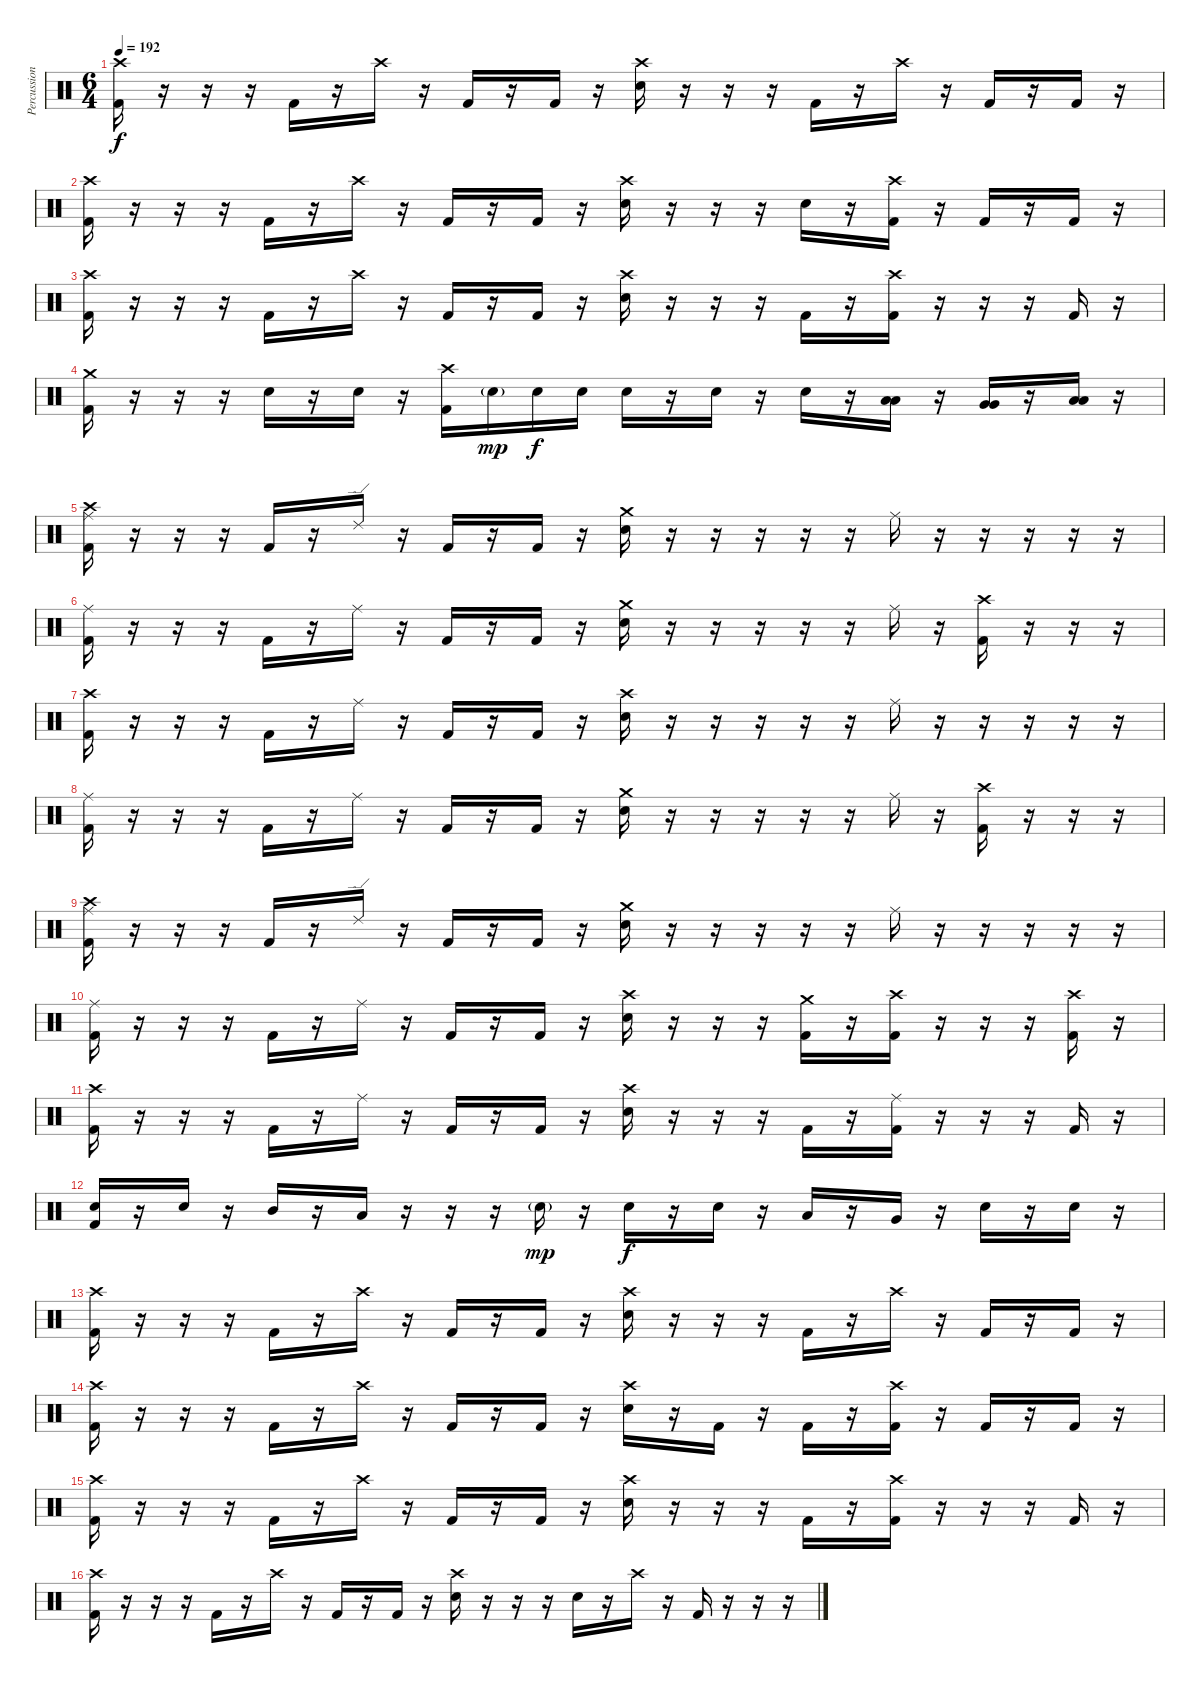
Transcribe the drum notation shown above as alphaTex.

\track ("Percussion" "Percussion") {instrument percussion}
\staff {score}
\articulation defaults
\ts (6 4)
\tempo 192
\clef neutral
\ks c
("Crash high (hit)" "Kick (hit) 2").16{dy f} r.16 r.16 r.16 "Kick (hit) 2".16 r.16 "Crash high (hit)".16 r.16 "Kick (hit) 2".16 r.16 "Kick (hit) 2".16 r.16 ("Crash high (hit)" "Snare (hit) 2").16 r.16 r.16 r.16 "Kick (hit) 2".16 r.16 "Crash high (hit)".16 r.16 "Kick (hit) 2".16 r.16 "Kick (hit) 2".16 r.16 |
("Crash high (hit)" "Kick (hit) 2").16 r.16 r.16 r.16 "Kick (hit) 2".16 r.16 "Crash high (hit)".16 r.16 "Kick (hit) 2".16 r.16 "Kick (hit) 2".16 r.16 ("Crash high (hit)" "Snare (hit) 2").16 r.16 r.16 r.16 "Snare (hit) 2".16 r.16 ("Crash high (hit)" "Kick (hit) 2").16 r.16 "Kick (hit) 2".16 r.16 "Kick (hit) 2".16 r.16 |
("Crash high (hit)" "Kick (hit) 2").16 r.16 r.16 r.16 "Kick (hit) 2".16 r.16 "Crash high (hit)".16 r.16 "Kick (hit) 2".16 r.16 "Kick (hit) 2".16 r.16 ("Crash high (hit)" "Snare (hit) 2").16 r.16 r.16 r.16 "Kick (hit) 2".16 r.16 ("Crash high (hit)" "Kick (hit) 2").16 r.16 r.16 r.16 "Kick (hit) 2".16 r.16 |
("Crash medium (hit)" "Kick (hit) 2").16 r.16 r.16 r.16 "Snare (hit) 2".16 r.16 "Snare (hit) 2".16 r.16 ("Crash high (hit)" "Kick (hit) 2").16 "Snare (hit) 2"{g}.16{dy mp} "Snare (hit) 2".16{dy f} "Snare (hit) 2".16 "Snare (hit) 2".16 r.16 "Snare (hit) 2".16 r.16 "Snare (hit) 2".16 r.16 ("Low Tom (hit)" "Low Tom (hit)").16 r.16 ("Very Low Tom (hit)" "Very Low Tom (hit)").16 r.16 ("Low Floor Tom (hit)" "Low Floor Tom (hit)").16 r.16 |
("Crash high (hit)" "Ride (middle)" "Kick (hit) 2").16 r.16 r.16 r.16 "Kick (hit) 2".16 r.16 "Ride (edge) 2".16 r.16 "Kick (hit) 2".16 r.16 "Kick (hit) 2".16 r.16 ("Crash medium (hit)" "Snare (hit) 2").16 r.16 r.16 r.16 r.16 r.16 "Ride (middle)".16 r.16 r.16 r.16 r.16 r.16 |
("Ride (middle)" "Kick (hit) 2").16 r.16 r.16 r.16 "Kick (hit) 2".16 r.16 "Ride (middle)".16 r.16 "Kick (hit) 2".16 r.16 "Kick (hit) 2".16 r.16 ("Crash medium (hit)" "Snare (hit) 2").16 r.16 r.16 r.16 r.16 r.16 "Ride (middle)".16 r.16 ("Crash high (hit)" "Kick (hit) 2").16 r.16 r.16 r.16 |
("Crash high (hit)" "Kick (hit) 2").16 r.16 r.16 r.16 "Kick (hit) 2".16 r.16 "Ride (middle)".16 r.16 "Kick (hit) 2".16 r.16 "Kick (hit) 2".16 r.16 ("Crash high (hit)" "Snare (hit) 2").16 r.16 r.16 r.16 r.16 r.16 "Ride (middle)".16 r.16 r.16 r.16 r.16 r.16 |
("Ride (middle)" "Kick (hit) 2").16 r.16 r.16 r.16 "Kick (hit) 2".16 r.16 "Ride (middle)".16 r.16 "Kick (hit) 2".16 r.16 "Kick (hit) 2".16 r.16 ("Crash medium (hit)" "Snare (hit) 2").16 r.16 r.16 r.16 r.16 r.16 "Ride (middle)".16 r.16 ("Crash high (hit)" "Kick (hit) 2").16 r.16 r.16 r.16 |
("Crash high (hit)" "Ride (middle)" "Kick (hit) 2").16 r.16 r.16 r.16 "Kick (hit) 2".16 r.16 "Ride (edge) 2".16 r.16 "Kick (hit) 2".16 r.16 "Kick (hit) 2".16 r.16 ("Crash medium (hit)" "Snare (hit) 2").16 r.16 r.16 r.16 r.16 r.16 "Ride (middle)".16 r.16 r.16 r.16 r.16 r.16 |
("Ride (middle)" "Kick (hit) 2").16 r.16 r.16 r.16 "Kick (hit) 2".16 r.16 "Ride (middle)".16 r.16 "Kick (hit) 2".16 r.16 "Kick (hit) 2".16 r.16 ("Crash high (hit)" "Snare (hit) 2").16 r.16 r.16 r.16 ("Crash medium (hit)" "Kick (hit) 2").16 r.16 ("Crash high (hit)" "Kick (hit) 2").16 r.16 r.16 r.16 ("Crash high (hit)" "Kick (hit) 2").16 r.16 |
("Crash high (hit)" "Kick (hit) 2").16 r.16 r.16 r.16 "Kick (hit) 2".16 r.16 "Ride (middle)".16 r.16 "Kick (hit) 2".16 r.16 "Kick (hit) 2".16 r.16 ("Crash high (hit)" "Snare (hit) 2").16 r.16 r.16 r.16 "Kick (hit) 2".16 r.16 ("Ride (middle)" "Kick (hit) 2").16 r.16 r.16 r.16 "Kick (hit) 2".16 r.16 |
("Snare (hit) 2" "Kick (hit) 2").16 r.16 "Snare (hit) 2".16 r.16 "Mid Tom (hit)".16 r.16 "Low Tom (hit)".16 r.16 r.16 r.16 "Snare (hit) 2"{g}.16{dy mp} r.16 "Snare (hit) 2".16{dy f} r.16 "Snare (hit) 2".16 r.16 "Low Tom (hit)".16 r.16 "Very Low Tom (hit)".16 r.16 "Snare (hit) 2".16 r.16 "Snare (hit) 2".16 r.16 |
("Crash high (hit)" "Kick (hit) 2").16 r.16 r.16 r.16 "Kick (hit) 2".16 r.16 "Crash high (hit)".16 r.16 "Kick (hit) 2".16 r.16 "Kick (hit) 2".16 r.16 ("Crash high (hit)" "Snare (hit) 2").16 r.16 r.16 r.16 "Kick (hit) 2".16 r.16 "Crash high (hit)".16 r.16 "Kick (hit) 2".16 r.16 "Kick (hit) 2".16 r.16 |
("Crash high (hit)" "Kick (hit) 2").16 r.16 r.16 r.16 "Kick (hit) 2".16 r.16 "Crash high (hit)".16 r.16 "Kick (hit) 2".16 r.16 "Kick (hit) 2".16 r.16 ("Crash high (hit)" "Snare (hit) 2").16 r.16 "Kick (hit) 2".16 r.16 "Kick (hit) 2".16 r.16 ("Crash high (hit)" "Kick (hit) 2").16 r.16 "Kick (hit) 2".16 r.16 "Kick (hit) 2".16 r.16 |
("Crash high (hit)" "Kick (hit) 2").16 r.16 r.16 r.16 "Kick (hit) 2".16 r.16 "Crash high (hit)".16 r.16 "Kick (hit) 2".16 r.16 "Kick (hit) 2".16 r.16 ("Crash high (hit)" "Snare (hit) 2").16 r.16 r.16 r.16 "Kick (hit) 2".16 r.16 ("Crash high (hit)" "Kick (hit) 2").16 r.16 r.16 r.16 "Kick (hit) 2".16 r.16 |
("Crash high (hit)" "Kick (hit) 2").16 r.16 r.16 r.16 "Kick (hit) 2".16 r.16 "Crash high (hit)".16 r.16 "Kick (hit) 2".16 r.16 "Kick (hit) 2".16 r.16 ("Crash high (hit)" "Snare (hit) 2").16 r.16 r.16 r.16 "Snare (hit) 2".16 r.16 "Crash high (hit)".16 r.16 "Kick (hit) 2".16 r.16 r.16 r.16
